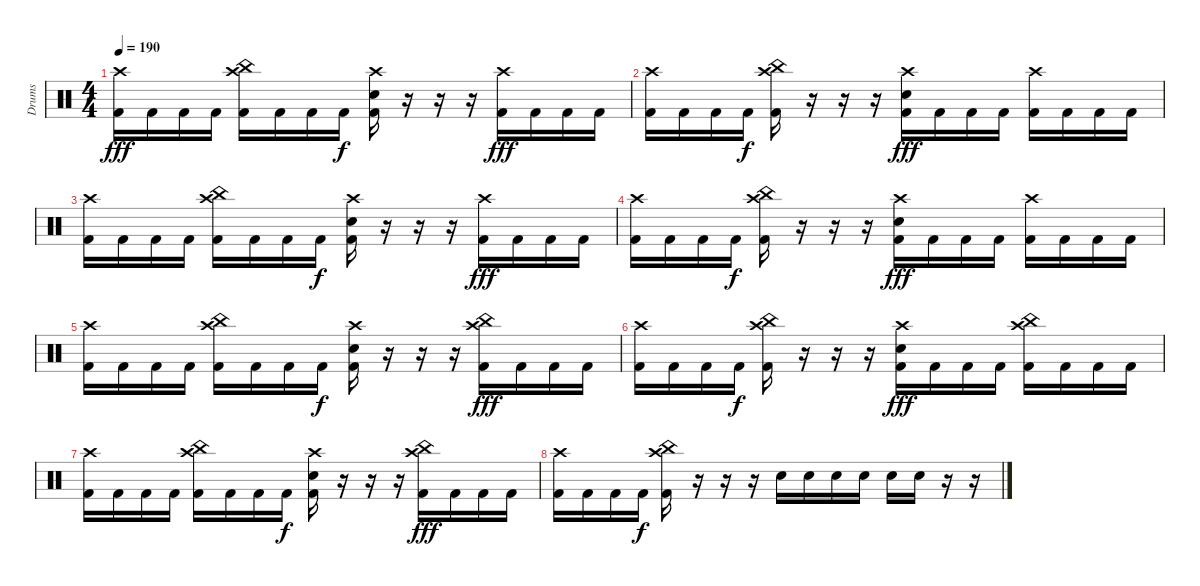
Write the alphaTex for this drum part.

\track ("Drums" "Drums") {instrument percussion}
\staff {score}
\articulation defaults
\ts (4 4)
\tempo 190
\clef neutral
\ks c
("Crash high (hit)" "Kick (hit) 2").16{dy fff} "Kick (hit) 2".16 "Kick (hit) 2".16 "Kick (hit) 2".16 ("Crash high (hit)" "China (hit)" "Kick (hit) 2").16 "Kick (hit) 2".16 "Kick (hit) 2".16 "Kick (hit) 2".16{dy f} ("Crash high (hit)" "Electric Snare (hit)" "Kick (hit) 2").16 r.16 r.16 r.16 ("Crash high (hit)" "Kick (hit) 2").16{dy fff} "Kick (hit) 2".16 "Kick (hit) 2".16 "Kick (hit) 2".16 |
("Crash high (hit)" "Kick (hit) 2").16 "Kick (hit) 2".16 "Kick (hit) 2".16 "Kick (hit) 2".16{dy f} ("Crash high (hit)" "China (hit)" "Kick (hit) 2").16 r.16 r.16 r.16 ("Crash high (hit)" "Electric Snare (hit)" "Kick (hit) 2").16{dy fff} "Kick (hit) 2".16 "Kick (hit) 2".16 "Kick (hit) 2".16 ("Crash high (hit)" "Kick (hit) 2").16 "Kick (hit) 2".16 "Kick (hit) 2".16 "Kick (hit) 2".16 |
("Crash high (hit)" "Kick (hit) 2").16 "Kick (hit) 2".16 "Kick (hit) 2".16 "Kick (hit) 2".16 ("Crash high (hit)" "China (hit)" "Kick (hit) 2").16 "Kick (hit) 2".16 "Kick (hit) 2".16 "Kick (hit) 2".16{dy f} ("Crash high (hit)" "Electric Snare (hit)" "Kick (hit) 2").16 r.16 r.16 r.16 ("Crash high (hit)" "Kick (hit) 2").16{dy fff} "Kick (hit) 2".16 "Kick (hit) 2".16 "Kick (hit) 2".16 |
("Crash high (hit)" "Kick (hit) 2").16 "Kick (hit) 2".16 "Kick (hit) 2".16 "Kick (hit) 2".16{dy f} ("Crash high (hit)" "China (hit)" "Kick (hit) 2").16 r.16 r.16 r.16 ("Crash high (hit)" "Electric Snare (hit)" "Kick (hit) 2").16{dy fff} "Kick (hit) 2".16 "Kick (hit) 2".16 "Kick (hit) 2".16 ("Crash high (hit)" "Kick (hit) 2").16 "Kick (hit) 2".16 "Kick (hit) 2".16 "Kick (hit) 2".16 |
("Crash high (hit)" "Kick (hit) 2").16 "Kick (hit) 2".16 "Kick (hit) 2".16 "Kick (hit) 2".16 ("Crash high (hit)" "China (hit)" "Kick (hit) 2").16 "Kick (hit) 2".16 "Kick (hit) 2".16 "Kick (hit) 2".16{dy f} ("Crash high (hit)" "Electric Snare (hit)" "Kick (hit) 2").16 r.16 r.16 r.16 ("Crash high (hit)" "China (hit)" "Kick (hit) 2").16{dy fff} "Kick (hit) 2".16 "Kick (hit) 2".16 "Kick (hit) 2".16 |
("Crash high (hit)" "Kick (hit) 2").16 "Kick (hit) 2".16 "Kick (hit) 2".16 "Kick (hit) 2".16{dy f} ("Crash high (hit)" "China (hit)" "Kick (hit) 2").16 r.16 r.16 r.16 ("Crash high (hit)" "Electric Snare (hit)" "Kick (hit) 2").16{dy fff} "Kick (hit) 2".16 "Kick (hit) 2".16 "Kick (hit) 2".16 ("Crash high (hit)" "China (hit)" "Kick (hit) 2").16 "Kick (hit) 2".16 "Kick (hit) 2".16 "Kick (hit) 2".16 |
("Crash high (hit)" "Kick (hit) 2").16 "Kick (hit) 2".16 "Kick (hit) 2".16 "Kick (hit) 2".16 ("Crash high (hit)" "China (hit)" "Kick (hit) 2").16 "Kick (hit) 2".16 "Kick (hit) 2".16 "Kick (hit) 2".16{dy f} ("Crash high (hit)" "Electric Snare (hit)" "Kick (hit) 2").16 r.16 r.16 r.16 ("Crash high (hit)" "China (hit)" "Kick (hit) 2").16{dy fff} "Kick (hit) 2".16 "Kick (hit) 2".16 "Kick (hit) 2".16 |
("Crash high (hit)" "Kick (hit) 2").16 "Kick (hit) 2".16 "Kick (hit) 2".16 "Kick (hit) 2".16{dy f} ("Crash high (hit)" "China (hit)" "Kick (hit) 2").16 r.16 r.16 r.16 "Electric Snare (hit)".16 "Electric Snare (hit)".16 "Electric Snare (hit)".16 "Electric Snare (hit)".16 "Electric Snare (hit)".16 "Electric Snare (hit)".16 r.16 r.16
